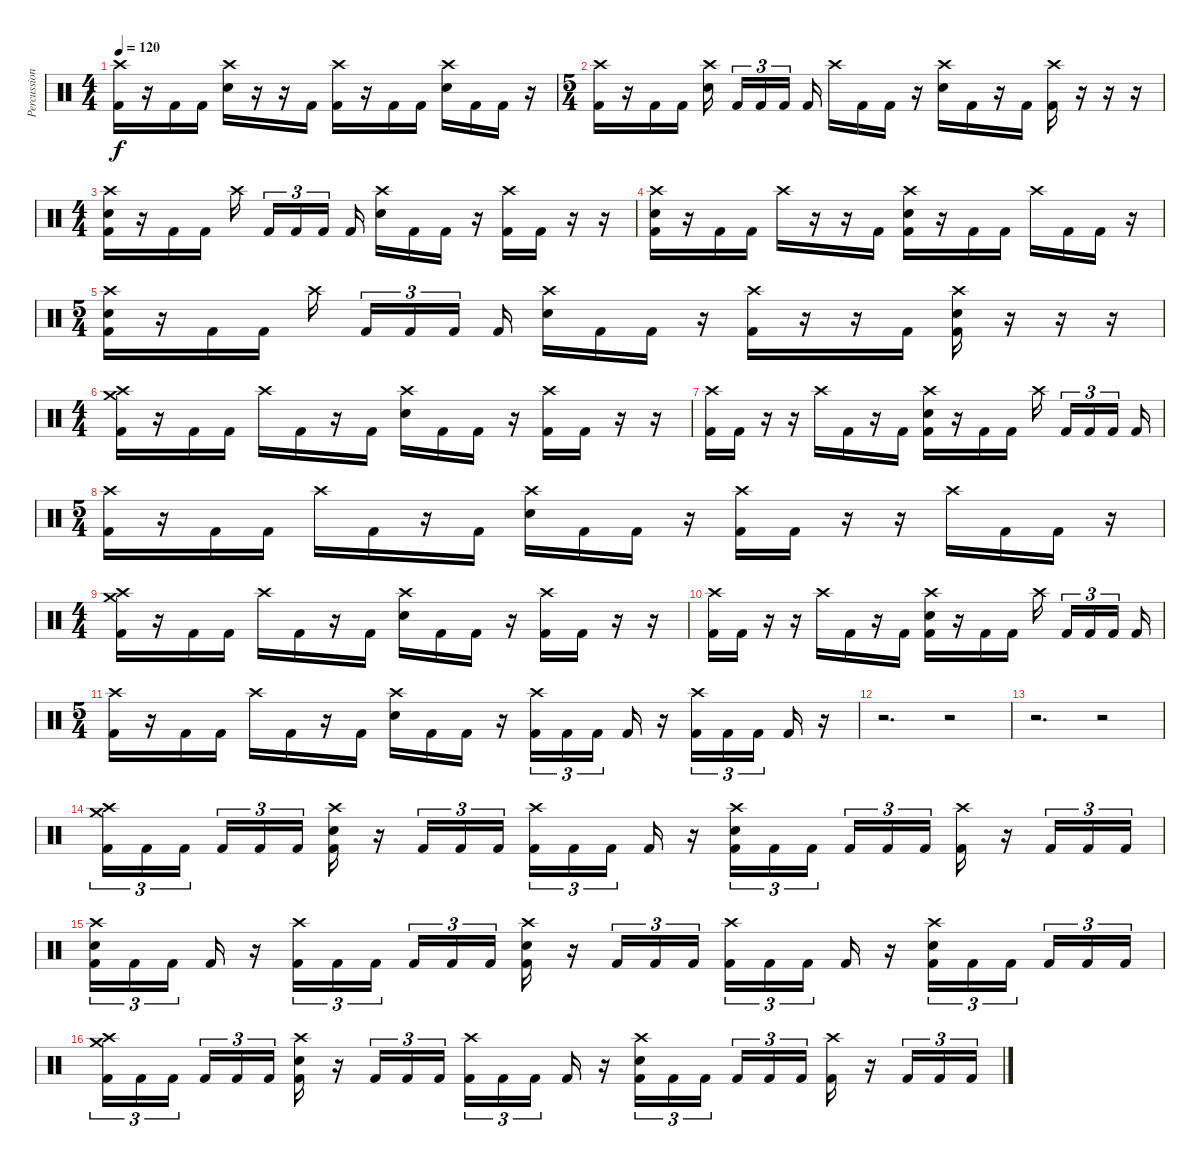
\track ("Percussion" "Percussion") {instrument percussion}
\staff {score}
\articulation defaults
\ts (4 4)
\tempo 120
\clef neutral
\ks c
("Crash high (hit)" "Kick (hit) 2").16{dy f} r.16 "Kick (hit) 2".16 "Kick (hit) 2".16 ("Crash high (hit)" "Electric Snare (hit)").16 r.16 r.16 "Kick (hit) 2".16 ("Crash high (hit)" "Kick (hit) 2").16 r.16 "Kick (hit) 2".16 "Kick (hit) 2".16 ("Crash high (hit)" "Electric Snare (hit)").16 "Kick (hit) 2".16 "Kick (hit) 2".16 r.16 |
\ts (5 4)
("Crash high (hit)" "Kick (hit) 2").16 r.16 "Kick (hit) 2".16 "Kick (hit) 2".16 ("Crash high (hit)" "Electric Snare (hit)").16{beam splitsecondary} "Kick (hit) 2".16{tu (3 2)} "Kick (hit) 2".16{tu (3 2)} "Kick (hit) 2".16{tu (3 2) beam splitsecondary} "Kick (hit) 2".16 "Crash high (hit)".16 "Kick (hit) 2".16 "Kick (hit) 2".16 r.16 ("Crash high (hit)" "Electric Snare (hit)").16 "Kick (hit) 2".16 r.16 "Kick (hit) 2".16 ("Crash high (hit)" "Kick (hit) 2").16 r.16 r.16 r.16 |
\ts (4 4)
("Crash high (hit)" "Electric Snare (hit)" "Kick (hit) 2").16 r.16 "Kick (hit) 2".16 "Kick (hit) 2".16 "Crash high (hit)".16{beam splitsecondary} "Kick (hit) 2".16{tu (3 2)} "Kick (hit) 2".16{tu (3 2)} "Kick (hit) 2".16{tu (3 2) beam splitsecondary} "Kick (hit) 2".16 ("Crash high (hit)" "Electric Snare (hit)").16 "Kick (hit) 2".16 "Kick (hit) 2".16 r.16 ("Crash high (hit)" "Kick (hit) 2").16 "Kick (hit) 2".16 r.16 r.16 |
("Crash high (hit)" "Electric Snare (hit)" "Kick (hit) 2").16 r.16 "Kick (hit) 2".16 "Kick (hit) 2".16 "Crash high (hit)".16 r.16 r.16 "Kick (hit) 2".16 ("Crash high (hit)" "Electric Snare (hit)" "Kick (hit) 2").16 r.16 "Kick (hit) 2".16 "Kick (hit) 2".16 "Crash high (hit)".16 "Kick (hit) 2".16 "Kick (hit) 2".16 r.16 |
\ts (5 4)
("Crash high (hit)" "Electric Snare (hit)" "Kick (hit) 2").16 r.16 "Kick (hit) 2".16 "Kick (hit) 2".16 "Crash high (hit)".16{beam splitsecondary} "Kick (hit) 2".16{tu (3 2)} "Kick (hit) 2".16{tu (3 2)} "Kick (hit) 2".16{tu (3 2) beam splitsecondary} "Kick (hit) 2".16 ("Crash high (hit)" "Electric Snare (hit)").16 "Kick (hit) 2".16 "Kick (hit) 2".16 r.16 ("Crash high (hit)" "Kick (hit) 2").16 r.16 r.16 "Kick (hit) 2".16 ("Crash high (hit)" "Electric Snare (hit)" "Kick (hit) 2").16 r.16 r.16 r.16 |
\ts (4 4)
("Crash high (hit)" "Crash medium (hit)" "Kick (hit) 2").16 r.16 "Kick (hit) 2".16 "Kick (hit) 2".16 "Crash high (hit)".16 "Kick (hit) 2".16 r.16 "Kick (hit) 2".16 ("Crash high (hit)" "Electric Snare (hit)").16 "Kick (hit) 2".16 "Kick (hit) 2".16 r.16 ("Crash high (hit)" "Kick (hit) 2").16 "Kick (hit) 2".16 r.16 r.16 |
("Crash high (hit)" "Kick (hit) 2").16 "Kick (hit) 2".16 r.16 r.16 "Crash high (hit)".16 "Kick (hit) 2".16 r.16 "Kick (hit) 2".16 ("Crash high (hit)" "Electric Snare (hit)" "Kick (hit) 2").16 r.16 "Kick (hit) 2".16 "Kick (hit) 2".16 "Crash high (hit)".16{beam splitsecondary} "Kick (hit) 2".16{tu (3 2)} "Kick (hit) 2".16{tu (3 2)} "Kick (hit) 2".16{tu (3 2) beam splitsecondary} "Kick (hit) 2".16 |
\ts (5 4)
("Crash high (hit)" "Kick (hit) 2").16 r.16 "Kick (hit) 2".16 "Kick (hit) 2".16 "Crash high (hit)".16 "Kick (hit) 2".16 r.16 "Kick (hit) 2".16 ("Crash high (hit)" "Electric Snare (hit)").16 "Kick (hit) 2".16 "Kick (hit) 2".16 r.16 ("Crash high (hit)" "Kick (hit) 2").16 "Kick (hit) 2".16 r.16 r.16 "Crash high (hit)".16 "Kick (hit) 2".16 "Kick (hit) 2".16 r.16 |
\ts (4 4)
("Crash high (hit)" "Crash medium (hit)" "Kick (hit) 2").16 r.16 "Kick (hit) 2".16 "Kick (hit) 2".16 "Crash high (hit)".16 "Kick (hit) 2".16 r.16 "Kick (hit) 2".16 ("Crash high (hit)" "Electric Snare (hit)").16 "Kick (hit) 2".16 "Kick (hit) 2".16 r.16 ("Crash high (hit)" "Kick (hit) 2").16 "Kick (hit) 2".16 r.16 r.16 |
("Crash high (hit)" "Kick (hit) 2").16 "Kick (hit) 2".16 r.16 r.16 "Crash high (hit)".16 "Kick (hit) 2".16 r.16 "Kick (hit) 2".16 ("Crash high (hit)" "Electric Snare (hit)" "Kick (hit) 2").16 r.16 "Kick (hit) 2".16 "Kick (hit) 2".16 "Crash high (hit)".16{beam splitsecondary} "Kick (hit) 2".16{tu (3 2)} "Kick (hit) 2".16{tu (3 2)} "Kick (hit) 2".16{tu (3 2) beam splitsecondary} "Kick (hit) 2".16 |
\ts (5 4)
("Crash high (hit)" "Kick (hit) 2").16 r.16 "Kick (hit) 2".16 "Kick (hit) 2".16 "Crash high (hit)".16 "Kick (hit) 2".16 r.16 "Kick (hit) 2".16 ("Crash high (hit)" "Electric Snare (hit)").16 "Kick (hit) 2".16 "Kick (hit) 2".16 r.16 ("Crash high (hit)" "Kick (hit) 2").16{tu (3 2)} "Kick (hit) 2".16{tu (3 2)} "Kick (hit) 2".16{tu (3 2) beam splitsecondary} "Kick (hit) 2".16 r.16 ("Crash high (hit)" "Kick (hit) 2").16{tu (3 2)} "Kick (hit) 2".16{tu (3 2)} "Kick (hit) 2".16{tu (3 2) beam splitsecondary} "Kick (hit) 2".16 r.16 |
r.2{d} r.2 |
r.2{d} r.2 |
("Crash high (hit)" "Crash medium (hit)" "Kick (hit) 2").16{tu (3 2)} "Kick (hit) 2".16{tu (3 2)} "Kick (hit) 2".16{tu (3 2) beam splitsecondary} "Kick (hit) 2".16{tu (3 2)} "Kick (hit) 2".16{tu (3 2)} "Kick (hit) 2".16{tu (3 2)} ("Crash high (hit)" "Electric Snare (hit)" "Kick (hit) 2").16 r.16 "Kick (hit) 2".16{tu (3 2)} "Kick (hit) 2".16{tu (3 2)} "Kick (hit) 2".16{tu (3 2)} ("Crash high (hit)" "Kick (hit) 2").16{tu (3 2)} "Kick (hit) 2".16{tu (3 2)} "Kick (hit) 2".16{tu (3 2) beam splitsecondary} "Kick (hit) 2".16 r.16 ("Crash high (hit)" "Electric Snare (hit)" "Kick (hit) 2").16{tu (3 2)} "Kick (hit) 2".16{tu (3 2)} "Kick (hit) 2".16{tu (3 2) beam splitsecondary} "Kick (hit) 2".16{tu (3 2)} "Kick (hit) 2".16{tu (3 2)} "Kick (hit) 2".16{tu (3 2)} ("Crash high (hit)" "Kick (hit) 2").16 r.16 "Kick (hit) 2".16{tu (3 2)} "Kick (hit) 2".16{tu (3 2)} "Kick (hit) 2".16{tu (3 2)} |
("Crash high (hit)" "Electric Snare (hit)" "Kick (hit) 2").16{tu (3 2)} "Kick (hit) 2".16{tu (3 2)} "Kick (hit) 2".16{tu (3 2) beam splitsecondary} "Kick (hit) 2".16 r.16 ("Crash high (hit)" "Kick (hit) 2").16{tu (3 2)} "Kick (hit) 2".16{tu (3 2)} "Kick (hit) 2".16{tu (3 2) beam splitsecondary} "Kick (hit) 2".16{tu (3 2)} "Kick (hit) 2".16{tu (3 2)} "Kick (hit) 2".16{tu (3 2)} ("Crash high (hit)" "Electric Snare (hit)" "Kick (hit) 2").16 r.16 "Kick (hit) 2".16{tu (3 2)} "Kick (hit) 2".16{tu (3 2)} "Kick (hit) 2".16{tu (3 2)} ("Crash high (hit)" "Kick (hit) 2").16{tu (3 2)} "Kick (hit) 2".16{tu (3 2)} "Kick (hit) 2".16{tu (3 2) beam splitsecondary} "Kick (hit) 2".16 r.16 ("Crash high (hit)" "Electric Snare (hit)" "Kick (hit) 2").16{tu (3 2)} "Kick (hit) 2".16{tu (3 2)} "Kick (hit) 2".16{tu (3 2) beam splitsecondary} "Kick (hit) 2".16{tu (3 2)} "Kick (hit) 2".16{tu (3 2)} "Kick (hit) 2".16{tu (3 2)} |
("Crash high (hit)" "Crash medium (hit)" "Kick (hit) 2").16{tu (3 2)} "Kick (hit) 2".16{tu (3 2)} "Kick (hit) 2".16{tu (3 2) beam splitsecondary} "Kick (hit) 2".16{tu (3 2)} "Kick (hit) 2".16{tu (3 2)} "Kick (hit) 2".16{tu (3 2)} ("Crash high (hit)" "Electric Snare (hit)" "Kick (hit) 2").16 r.16 "Kick (hit) 2".16{tu (3 2)} "Kick (hit) 2".16{tu (3 2)} "Kick (hit) 2".16{tu (3 2)} ("Crash high (hit)" "Kick (hit) 2").16{tu (3 2)} "Kick (hit) 2".16{tu (3 2)} "Kick (hit) 2".16{tu (3 2) beam splitsecondary} "Kick (hit) 2".16 r.16 ("Crash high (hit)" "Electric Snare (hit)" "Kick (hit) 2").16{tu (3 2)} "Kick (hit) 2".16{tu (3 2)} "Kick (hit) 2".16{tu (3 2) beam splitsecondary} "Kick (hit) 2".16{tu (3 2)} "Kick (hit) 2".16{tu (3 2)} "Kick (hit) 2".16{tu (3 2)} ("Crash high (hit)" "Kick (hit) 2").16 r.16 "Kick (hit) 2".16{tu (3 2)} "Kick (hit) 2".16{tu (3 2)} "Kick (hit) 2".16{tu (3 2)}
